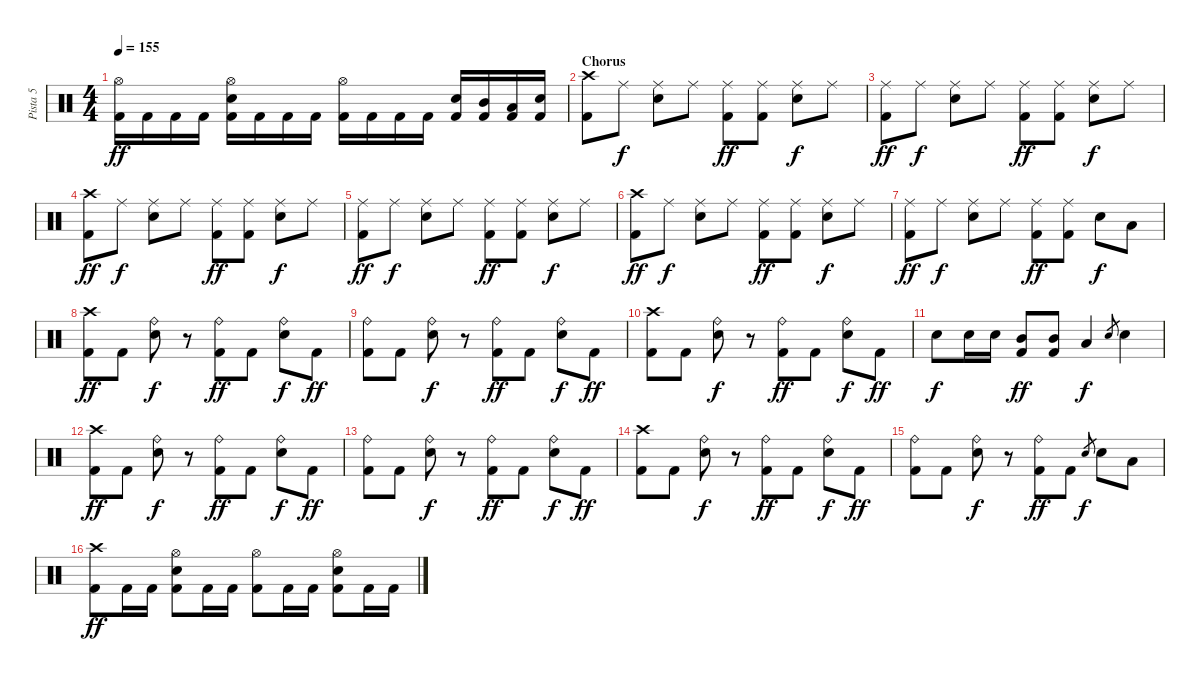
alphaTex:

\track ("Pista 5" "Pista 5") {instrument percussion}
\staff {score}
\articulation defaults
\ts (4 4)
\tempo 155
\clef neutral
\ks c
("Hi-Hat (open)" "Kick (hit) 2").16{dy ff} "Kick (hit) 2".16 "Kick (hit) 2".16 "Kick (hit) 2".16 ("Hi-Hat (open)" "Electric Snare (hit)" "Kick (hit) 2").16 "Kick (hit) 2".16 "Kick (hit) 2".16 "Kick (hit) 2".16 ("Hi-Hat (open)" "Kick (hit) 2").16 "Kick (hit) 2".16 "Kick (hit) 2".16 "Kick (hit) 2".16 ("Electric Snare (hit)" "Kick (hit) 2").16 ("Mid Tom (hit)" "Kick (hit) 2").16 ("Low Tom (hit)" "Kick (hit) 2").16 ("Electric Snare (hit)" "Kick (hit) 2").16 |
\section ("" "Chorus ")
("Crash high (hit)" "Kick (hit) 2").8 "Ride (middle)".8{dy f} ("Ride (middle)" "Electric Snare (hit)").8 "Ride (middle)".8 ("Ride (middle)" "Kick (hit) 2").8{dy ff} ("Ride (middle)" "Kick (hit) 2").8 ("Ride (middle)" "Electric Snare (hit)").8{dy f} "Ride (middle)".8 |
("Ride (middle)" "Kick (hit) 2").8{dy ff} "Ride (middle)".8{dy f} ("Ride (middle)" "Electric Snare (hit)").8 "Ride (middle)".8 ("Ride (middle)" "Kick (hit) 2").8{dy ff} ("Ride (middle)" "Kick (hit) 2").8 ("Ride (middle)" "Electric Snare (hit)").8{dy f} "Ride (middle)".8 |
("Crash high (hit)" "Kick (hit) 2").8{dy ff} "Ride (middle)".8{dy f} ("Ride (middle)" "Electric Snare (hit)").8 "Ride (middle)".8 ("Ride (middle)" "Kick (hit) 2").8{dy ff} ("Ride (middle)" "Kick (hit) 2").8 ("Ride (middle)" "Electric Snare (hit)").8{dy f} "Ride (middle)".8 |
("Ride (middle)" "Kick (hit) 2").8{dy ff} "Ride (middle)".8{dy f} ("Ride (middle)" "Electric Snare (hit)").8 "Ride (middle)".8 ("Ride (middle)" "Kick (hit) 2").8{dy ff} ("Ride (middle)" "Kick (hit) 2").8 ("Ride (middle)" "Electric Snare (hit)").8{dy f} "Ride (middle)".8 |
("Crash high (hit)" "Kick (hit) 2").8{dy ff} "Ride (middle)".8{dy f} ("Ride (middle)" "Electric Snare (hit)").8 "Ride (middle)".8 ("Ride (middle)" "Kick (hit) 2").8{dy ff} ("Ride (middle)" "Kick (hit) 2").8 ("Ride (middle)" "Electric Snare (hit)").8{dy f} "Ride (middle)".8 |
("Ride (middle)" "Kick (hit) 2").8{dy ff} "Ride (middle)".8{dy f} ("Ride (middle)" "Electric Snare (hit)").8 "Ride (middle)".8 ("Ride (middle)" "Kick (hit) 2").8{dy ff} ("Ride (middle)" "Kick (hit) 2").8 "Electric Snare (hit)".8{dy f} "Low Tom (hit)".8 |
("Crash high (hit)" "Kick (hit) 2").8{dy ff} "Kick (hit) 2".8 ("Ride (bell)" "Electric Snare (hit)").8{dy f} r.8 ("Ride (bell)" "Kick (hit) 2").8{dy ff} "Kick (hit) 2".8 ("Ride (bell)" "Electric Snare (hit)").8{dy f} "Kick (hit) 2".8{dy ff} |
("Ride (bell)" "Kick (hit) 2").8 "Kick (hit) 2".8 ("Ride (bell)" "Electric Snare (hit)").8{dy f} r.8 ("Ride (bell)" "Kick (hit) 2").8{dy ff} "Kick (hit) 2".8 ("Ride (bell)" "Electric Snare (hit)").8{dy f} "Kick (hit) 2".8{dy ff} |
("Crash high (hit)" "Kick (hit) 2").8 "Kick (hit) 2".8 ("Ride (bell)" "Electric Snare (hit)").8{dy f} r.8 ("Ride (bell)" "Kick (hit) 2").8{dy ff} "Kick (hit) 2".8 ("Ride (bell)" "Electric Snare (hit)").8{dy f} "Kick (hit) 2".8{dy ff} |
"Electric Snare (hit)".8{dy f} "Electric Snare (hit)".16 "Electric Snare (hit)".16 ("Mid Tom (hit)" "Kick (hit) 2").8{dy ff} ("Mid Tom (hit)" "Kick (hit) 2").8 "Low Tom (hit)".4{dy f} "Electric Snare (hit)".8{gr} "Electric Snare (hit)".4 |
("Crash high (hit)" "Kick (hit) 2").8{dy ff} "Kick (hit) 2".8 ("Ride (bell)" "Electric Snare (hit)").8{dy f} r.8 ("Ride (bell)" "Kick (hit) 2").8{dy ff} "Kick (hit) 2".8 ("Ride (bell)" "Electric Snare (hit)").8{dy f} "Kick (hit) 2".8{dy ff} |
("Ride (bell)" "Kick (hit) 2").8 "Kick (hit) 2".8 ("Ride (bell)" "Electric Snare (hit)").8{dy f} r.8 ("Ride (bell)" "Kick (hit) 2").8{dy ff} "Kick (hit) 2".8 ("Ride (bell)" "Electric Snare (hit)").8{dy f} "Kick (hit) 2".8{dy ff} |
("Crash high (hit)" "Kick (hit) 2").8 "Kick (hit) 2".8 ("Ride (bell)" "Electric Snare (hit)").8{dy f} r.8 ("Ride (bell)" "Kick (hit) 2").8{dy ff} "Kick (hit) 2".8 ("Ride (bell)" "Electric Snare (hit)").8{dy f} "Kick (hit) 2".8{dy ff} |
("Ride (bell)" "Kick (hit) 2").8 "Kick (hit) 2".8 ("Ride (bell)" "Electric Snare (hit)").8{dy f} r.8 ("Ride (bell)" "Kick (hit) 2").8{dy ff} "Kick (hit) 2".8 "Electric Snare (hit)".8{gr dy f} "Electric Snare (hit)".8 "Low Tom (hit)".8 |
("Crash high (hit)" "Kick (hit) 2").8{dy ff} "Kick (hit) 2".16 "Kick (hit) 2".16 ("Hi-Hat (open)" "Electric Snare (hit)" "Kick (hit) 2").8 "Kick (hit) 2".16 "Kick (hit) 2".16 ("Hi-Hat (open)" "Kick (hit) 2").8 "Kick (hit) 2".16 "Kick (hit) 2".16 ("Hi-Hat (open)" "Electric Snare (hit)" "Kick (hit) 2").8 "Kick (hit) 2".16 "Kick (hit) 2".16
